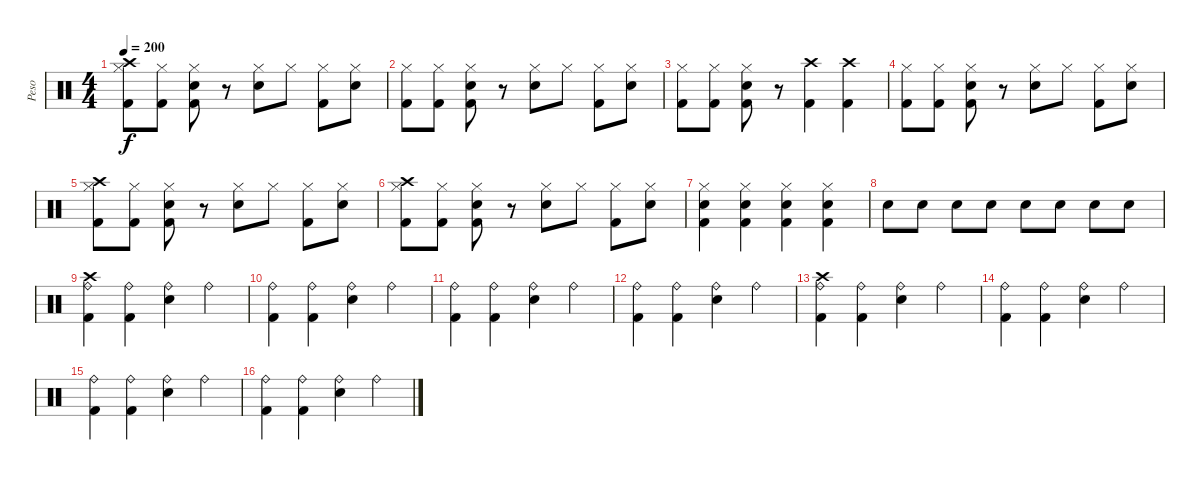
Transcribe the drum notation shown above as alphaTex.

\track ("Peso" "Peso") {instrument percussion}
\staff {score}
\articulation defaults
\ts (4 4)
\tempo 200
\clef neutral
\ks c
("Crash high (hit)" "Hi-Hat (closed)" "Kick (hit) 2").8{dy f} ("Hi-Hat (closed)" "Kick (hit) 2").8 ("Hi-Hat (closed)" "Snare (hit) 2" "Kick (hit) 2").8 r.8 ("Hi-Hat (closed)" "Snare (hit) 2").8 "Hi-Hat (closed)".8 ("Hi-Hat (closed)" "Kick (hit) 2").8 ("Hi-Hat (closed)" "Snare (hit) 2").8 |
("Hi-Hat (closed)" "Kick (hit) 2").8 ("Hi-Hat (closed)" "Kick (hit) 2").8 ("Hi-Hat (closed)" "Snare (hit) 2" "Kick (hit) 2").8 r.8 ("Hi-Hat (closed)" "Snare (hit) 2").8 "Hi-Hat (closed)".8 ("Hi-Hat (closed)" "Kick (hit) 2").8 ("Hi-Hat (closed)" "Snare (hit) 2").8 |
("Hi-Hat (closed)" "Kick (hit) 2").8 ("Hi-Hat (closed)" "Kick (hit) 2").8 ("Hi-Hat (closed)" "Snare (hit) 2" "Kick (hit) 2").8 r.8 ("Crash high (hit)" "Kick (hit) 2").4 ("Crash high (hit)" "Kick (hit) 2").4 |
("Hi-Hat (closed)" "Kick (hit) 2").8 ("Hi-Hat (closed)" "Kick (hit) 2").8 ("Hi-Hat (closed)" "Snare (hit) 2" "Kick (hit) 2").8 r.8 ("Hi-Hat (closed)" "Snare (hit) 2").8 "Hi-Hat (closed)".8 ("Hi-Hat (closed)" "Kick (hit) 2").8 ("Hi-Hat (closed)" "Snare (hit) 2").8 |
("Crash high (hit)" "Hi-Hat (closed)" "Kick (hit) 2").8 ("Hi-Hat (closed)" "Kick (hit) 2").8 ("Hi-Hat (closed)" "Snare (hit) 2" "Kick (hit) 2").8 r.8 ("Hi-Hat (closed)" "Snare (hit) 2").8 "Hi-Hat (closed)".8 ("Hi-Hat (closed)" "Kick (hit) 2").8 ("Hi-Hat (closed)" "Snare (hit) 2").8 |
("Crash high (hit)" "Hi-Hat (closed)" "Kick (hit) 2").8 ("Hi-Hat (closed)" "Kick (hit) 2").8 ("Hi-Hat (closed)" "Snare (hit) 2" "Kick (hit) 2").8 r.8 ("Hi-Hat (closed)" "Snare (hit) 2").8 "Hi-Hat (closed)".8 ("Hi-Hat (closed)" "Kick (hit) 2").8 ("Hi-Hat (closed)" "Snare (hit) 2").8 |
("Hi-Hat (closed)" "Snare (hit) 2" "Kick (hit) 2").4 ("Hi-Hat (closed)" "Snare (hit) 2" "Kick (hit) 2").4 ("Hi-Hat (closed)" "Snare (hit) 2" "Kick (hit) 2").4 ("Hi-Hat (closed)" "Snare (hit) 2" "Kick (hit) 2").4 |
"Snare (hit) 2".8 "Snare (hit) 2".8 "Snare (hit) 2".8 "Snare (hit) 2".8 "Snare (hit) 2".8 "Snare (hit) 2".8 "Snare (hit) 2".8 "Snare (hit) 2".8 |
("Crash high (hit)" "Ride (bell)" "Kick (hit) 2").4 ("Ride (bell)" "Kick (hit) 2").4 ("Ride (bell)" "Snare (hit) 2").4 "Ride (bell)".4 |
("Ride (bell)" "Kick (hit) 2").4 ("Ride (bell)" "Kick (hit) 2").4 ("Ride (bell)" "Snare (hit) 2").4 "Ride (bell)".4 |
("Ride (bell)" "Kick (hit) 2").4 ("Ride (bell)" "Kick (hit) 2").4 ("Ride (bell)" "Snare (hit) 2").4 "Ride (bell)".4 |
("Ride (bell)" "Kick (hit) 2").4 ("Ride (bell)" "Kick (hit) 2").4 ("Ride (bell)" "Snare (hit) 2").4 "Ride (bell)".4 |
("Crash high (hit)" "Ride (bell)" "Kick (hit) 2").4 ("Ride (bell)" "Kick (hit) 2").4 ("Ride (bell)" "Snare (hit) 2").4 "Ride (bell)".4 |
("Ride (bell)" "Kick (hit) 2").4 ("Ride (bell)" "Kick (hit) 2").4 ("Ride (bell)" "Snare (hit) 2").4 "Ride (bell)".4 |
("Ride (bell)" "Kick (hit) 2").4 ("Ride (bell)" "Kick (hit) 2").4 ("Ride (bell)" "Snare (hit) 2").4 "Ride (bell)".4 |
("Ride (bell)" "Kick (hit) 2").4 ("Ride (bell)" "Kick (hit) 2").4 ("Ride (bell)" "Snare (hit) 2").4 "Ride (bell)".4
